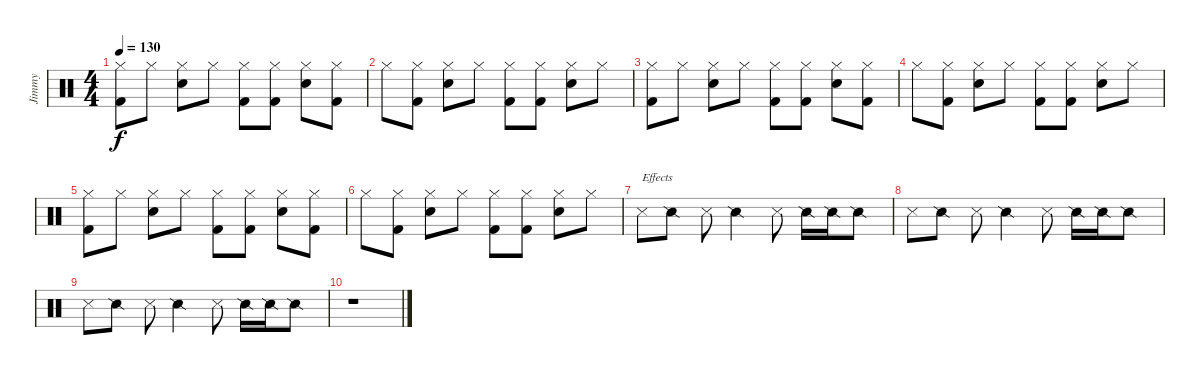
\track ("Jimmy" "Jimmy") {instrument percussion}
\staff {score}
\articulation defaults
\ts (4 4)
\tempo 130
\clef neutral
\ks c
("Hi-Hat (closed)" "Kick (hit) 2").8{dy f} "Hi-Hat (closed)".8 ("Hi-Hat (closed)" "Electric Snare (hit)").8 "Hi-Hat (closed)".8 ("Hi-Hat (closed)" "Kick (hit) 2").8 ("Hi-Hat (closed)" "Kick (hit) 2").8 ("Hi-Hat (closed)" "Electric Snare (hit)").8 ("Hi-Hat (closed)" "Kick (hit) 2").8 |
"Hi-Hat (closed)".8 ("Hi-Hat (closed)" "Kick (hit) 2").8 ("Hi-Hat (closed)" "Electric Snare (hit)").8 "Hi-Hat (closed)".8 ("Hi-Hat (closed)" "Kick (hit) 2").8 ("Hi-Hat (closed)" "Kick (hit) 2").8 ("Hi-Hat (closed)" "Electric Snare (hit)").8 "Hi-Hat (closed)".8 |
("Hi-Hat (closed)" "Kick (hit) 2").8 "Hi-Hat (closed)".8 ("Hi-Hat (closed)" "Electric Snare (hit)").8 "Hi-Hat (closed)".8 ("Hi-Hat (closed)" "Kick (hit) 2").8 ("Hi-Hat (closed)" "Kick (hit) 2").8 ("Hi-Hat (closed)" "Electric Snare (hit)").8 ("Hi-Hat (closed)" "Kick (hit) 2").8 |
"Hi-Hat (closed)".8 ("Hi-Hat (closed)" "Kick (hit) 2").8 ("Hi-Hat (closed)" "Electric Snare (hit)").8 "Hi-Hat (closed)".8 ("Hi-Hat (closed)" "Kick (hit) 2").8 ("Hi-Hat (closed)" "Kick (hit) 2").8 ("Hi-Hat (closed)" "Electric Snare (hit)").8 "Hi-Hat (closed)".8 |
("Hi-Hat (closed)" "Kick (hit) 2").8 "Hi-Hat (closed)".8 ("Hi-Hat (closed)" "Electric Snare (hit)").8 "Hi-Hat (closed)".8 ("Hi-Hat (closed)" "Kick (hit) 2").8 ("Hi-Hat (closed)" "Kick (hit) 2").8 ("Hi-Hat (closed)" "Electric Snare (hit)").8 ("Hi-Hat (closed)" "Kick (hit) 2").8 |
"Hi-Hat (closed)".8 ("Hi-Hat (closed)" "Kick (hit) 2").8 ("Hi-Hat (closed)" "Electric Snare (hit)").8 "Hi-Hat (closed)".8 ("Hi-Hat (closed)" "Kick (hit) 2").8 ("Hi-Hat (closed)" "Kick (hit) 2").8 ("Hi-Hat (closed)" "Electric Snare (hit)").8 "Hi-Hat (closed)".8 |
"Metronome (hit)".8{txt "Effects" volume 2} "Snare (side stick) 2".8 "Metronome (hit)".8 "Snare (side stick) 2".4 "Metronome (hit)".8 "Snare (side stick) 2".16 "Snare (side stick) 2".16 "Snare (side stick) 2".8 |
"Metronome (hit)".8 "Snare (side stick) 2".8 "Metronome (hit)".8 "Snare (side stick) 2".4 "Metronome (hit)".8 "Snare (side stick) 2".16 "Snare (side stick) 2".16 "Snare (side stick) 2".8 |
"Metronome (hit)".8 "Snare (side stick) 2".8 "Metronome (hit)".8 "Snare (side stick) 2".4 "Metronome (hit)".8 "Snare (side stick) 2".16 "Snare (side stick) 2".16 "Snare (side stick) 2".8 |
r.1
